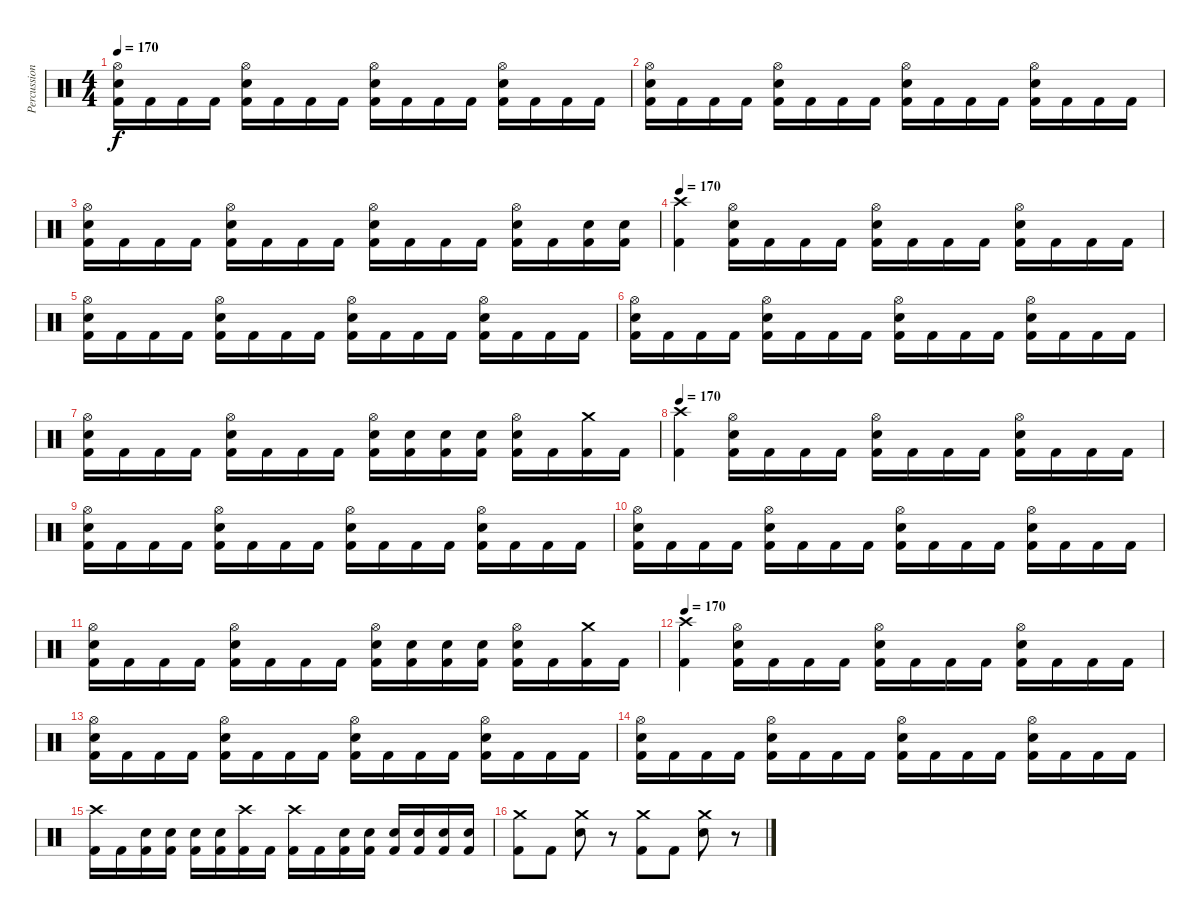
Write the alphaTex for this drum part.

\track ("Percussion" "Percussion") {instrument percussion}
\staff {score}
\articulation defaults
\ts (4 4)
\tempo 170
\clef neutral
\ks c
("Hi-Hat (open)" "Electric Snare (hit)" "Kick (hit) 2").16{dy f} "Kick (hit) 2".16 "Kick (hit) 2".16 "Kick (hit) 2".16 ("Hi-Hat (open)" "Electric Snare (hit)" "Kick (hit) 2").16 "Kick (hit) 2".16 "Kick (hit) 2".16 "Kick (hit) 2".16 ("Hi-Hat (open)" "Electric Snare (hit)" "Kick (hit) 2").16 "Kick (hit) 2".16 "Kick (hit) 2".16 "Kick (hit) 2".16 ("Hi-Hat (open)" "Electric Snare (hit)" "Kick (hit) 2").16 "Kick (hit) 2".16 "Kick (hit) 2".16 "Kick (hit) 2".16 |
("Hi-Hat (open)" "Electric Snare (hit)" "Kick (hit) 2").16 "Kick (hit) 2".16 "Kick (hit) 2".16 "Kick (hit) 2".16 ("Hi-Hat (open)" "Electric Snare (hit)" "Kick (hit) 2").16 "Kick (hit) 2".16 "Kick (hit) 2".16 "Kick (hit) 2".16 ("Hi-Hat (open)" "Electric Snare (hit)" "Kick (hit) 2").16 "Kick (hit) 2".16 "Kick (hit) 2".16 "Kick (hit) 2".16 ("Hi-Hat (open)" "Electric Snare (hit)" "Kick (hit) 2").16 "Kick (hit) 2".16 "Kick (hit) 2".16 "Kick (hit) 2".16 |
("Hi-Hat (open)" "Electric Snare (hit)" "Kick (hit) 2").16 "Kick (hit) 2".16 "Kick (hit) 2".16 "Kick (hit) 2".16 ("Hi-Hat (open)" "Electric Snare (hit)" "Kick (hit) 2").16 "Kick (hit) 2".16 "Kick (hit) 2".16 "Kick (hit) 2".16 ("Hi-Hat (open)" "Electric Snare (hit)" "Kick (hit) 2").16 "Kick (hit) 2".16 "Kick (hit) 2".16 "Kick (hit) 2".16 ("Hi-Hat (open)" "Electric Snare (hit)" "Kick (hit) 2").16 "Kick (hit) 2".16 ("Electric Snare (hit)" "Kick (hit) 2").16 ("Electric Snare (hit)" "Kick (hit) 2").16 |
\tempo 170
("Crash high (hit)" "Kick (hit) 2").4 ("Hi-Hat (open)" "Electric Snare (hit)" "Kick (hit) 2").16 "Kick (hit) 2".16 "Kick (hit) 2".16 "Kick (hit) 2".16 ("Hi-Hat (open)" "Electric Snare (hit)" "Kick (hit) 2").16 "Kick (hit) 2".16 "Kick (hit) 2".16 "Kick (hit) 2".16 ("Hi-Hat (open)" "Electric Snare (hit)" "Kick (hit) 2").16 "Kick (hit) 2".16 "Kick (hit) 2".16 "Kick (hit) 2".16 |
("Hi-Hat (open)" "Electric Snare (hit)" "Kick (hit) 2").16 "Kick (hit) 2".16 "Kick (hit) 2".16 "Kick (hit) 2".16 ("Hi-Hat (open)" "Electric Snare (hit)" "Kick (hit) 2").16 "Kick (hit) 2".16 "Kick (hit) 2".16 "Kick (hit) 2".16 ("Hi-Hat (open)" "Electric Snare (hit)" "Kick (hit) 2").16 "Kick (hit) 2".16 "Kick (hit) 2".16 "Kick (hit) 2".16 ("Hi-Hat (open)" "Electric Snare (hit)" "Kick (hit) 2").16 "Kick (hit) 2".16 "Kick (hit) 2".16 "Kick (hit) 2".16 |
("Hi-Hat (open)" "Electric Snare (hit)" "Kick (hit) 2").16 "Kick (hit) 2".16 "Kick (hit) 2".16 "Kick (hit) 2".16 ("Hi-Hat (open)" "Electric Snare (hit)" "Kick (hit) 2").16 "Kick (hit) 2".16 "Kick (hit) 2".16 "Kick (hit) 2".16 ("Hi-Hat (open)" "Electric Snare (hit)" "Kick (hit) 2").16 "Kick (hit) 2".16 "Kick (hit) 2".16 "Kick (hit) 2".16 ("Hi-Hat (open)" "Electric Snare (hit)" "Kick (hit) 2").16 "Kick (hit) 2".16 "Kick (hit) 2".16 "Kick (hit) 2".16 |
("Hi-Hat (open)" "Electric Snare (hit)" "Kick (hit) 2").16 "Kick (hit) 2".16 "Kick (hit) 2".16 "Kick (hit) 2".16 ("Hi-Hat (open)" "Electric Snare (hit)" "Kick (hit) 2").16 "Kick (hit) 2".16 "Kick (hit) 2".16 "Kick (hit) 2".16 ("Hi-Hat (open)" "Electric Snare (hit)" "Kick (hit) 2").16 ("Electric Snare (hit)" "Kick (hit) 2").16 ("Electric Snare (hit)" "Kick (hit) 2").16 ("Electric Snare (hit)" "Kick (hit) 2").16 ("Hi-Hat (open)" "Electric Snare (hit)" "Kick (hit) 2").16 "Kick (hit) 2".16 ("Crash medium (hit)" "Kick (hit) 2").16 "Kick (hit) 2".16 |
\tempo 170
("Crash high (hit)" "Kick (hit) 2").4 ("Hi-Hat (open)" "Electric Snare (hit)" "Kick (hit) 2").16 "Kick (hit) 2".16 "Kick (hit) 2".16 "Kick (hit) 2".16 ("Hi-Hat (open)" "Electric Snare (hit)" "Kick (hit) 2").16 "Kick (hit) 2".16 "Kick (hit) 2".16 "Kick (hit) 2".16 ("Hi-Hat (open)" "Electric Snare (hit)" "Kick (hit) 2").16 "Kick (hit) 2".16 "Kick (hit) 2".16 "Kick (hit) 2".16 |
("Hi-Hat (open)" "Electric Snare (hit)" "Kick (hit) 2").16 "Kick (hit) 2".16 "Kick (hit) 2".16 "Kick (hit) 2".16 ("Hi-Hat (open)" "Electric Snare (hit)" "Kick (hit) 2").16 "Kick (hit) 2".16 "Kick (hit) 2".16 "Kick (hit) 2".16 ("Hi-Hat (open)" "Electric Snare (hit)" "Kick (hit) 2").16 "Kick (hit) 2".16 "Kick (hit) 2".16 "Kick (hit) 2".16 ("Hi-Hat (open)" "Electric Snare (hit)" "Kick (hit) 2").16 "Kick (hit) 2".16 "Kick (hit) 2".16 "Kick (hit) 2".16 |
("Hi-Hat (open)" "Electric Snare (hit)" "Kick (hit) 2").16 "Kick (hit) 2".16 "Kick (hit) 2".16 "Kick (hit) 2".16 ("Hi-Hat (open)" "Electric Snare (hit)" "Kick (hit) 2").16 "Kick (hit) 2".16 "Kick (hit) 2".16 "Kick (hit) 2".16 ("Hi-Hat (open)" "Electric Snare (hit)" "Kick (hit) 2").16 "Kick (hit) 2".16 "Kick (hit) 2".16 "Kick (hit) 2".16 ("Hi-Hat (open)" "Electric Snare (hit)" "Kick (hit) 2").16 "Kick (hit) 2".16 "Kick (hit) 2".16 "Kick (hit) 2".16 |
("Hi-Hat (open)" "Electric Snare (hit)" "Kick (hit) 2").16 "Kick (hit) 2".16 "Kick (hit) 2".16 "Kick (hit) 2".16 ("Hi-Hat (open)" "Electric Snare (hit)" "Kick (hit) 2").16 "Kick (hit) 2".16 "Kick (hit) 2".16 "Kick (hit) 2".16 ("Hi-Hat (open)" "Electric Snare (hit)" "Kick (hit) 2").16 ("Electric Snare (hit)" "Kick (hit) 2").16 ("Electric Snare (hit)" "Kick (hit) 2").16 ("Electric Snare (hit)" "Kick (hit) 2").16 ("Hi-Hat (open)" "Electric Snare (hit)" "Kick (hit) 2").16 "Kick (hit) 2".16 ("Crash medium (hit)" "Kick (hit) 2").16 "Kick (hit) 2".16 |
\tempo 170
("Crash high (hit)" "Kick (hit) 2").4 ("Hi-Hat (open)" "Electric Snare (hit)" "Kick (hit) 2").16 "Kick (hit) 2".16 "Kick (hit) 2".16 "Kick (hit) 2".16 ("Hi-Hat (open)" "Electric Snare (hit)" "Kick (hit) 2").16 "Kick (hit) 2".16 "Kick (hit) 2".16 "Kick (hit) 2".16 ("Hi-Hat (open)" "Electric Snare (hit)" "Kick (hit) 2").16 "Kick (hit) 2".16 "Kick (hit) 2".16 "Kick (hit) 2".16 |
("Hi-Hat (open)" "Electric Snare (hit)" "Kick (hit) 2").16 "Kick (hit) 2".16 "Kick (hit) 2".16 "Kick (hit) 2".16 ("Hi-Hat (open)" "Electric Snare (hit)" "Kick (hit) 2").16 "Kick (hit) 2".16 "Kick (hit) 2".16 "Kick (hit) 2".16 ("Hi-Hat (open)" "Electric Snare (hit)" "Kick (hit) 2").16 "Kick (hit) 2".16 "Kick (hit) 2".16 "Kick (hit) 2".16 ("Hi-Hat (open)" "Electric Snare (hit)" "Kick (hit) 2").16 "Kick (hit) 2".16 "Kick (hit) 2".16 "Kick (hit) 2".16 |
("Hi-Hat (open)" "Electric Snare (hit)" "Kick (hit) 2").16 "Kick (hit) 2".16 "Kick (hit) 2".16 "Kick (hit) 2".16 ("Hi-Hat (open)" "Electric Snare (hit)" "Kick (hit) 2").16 "Kick (hit) 2".16 "Kick (hit) 2".16 "Kick (hit) 2".16 ("Hi-Hat (open)" "Electric Snare (hit)" "Kick (hit) 2").16 "Kick (hit) 2".16 "Kick (hit) 2".16 "Kick (hit) 2".16 ("Hi-Hat (open)" "Electric Snare (hit)" "Kick (hit) 2").16 "Kick (hit) 2".16 "Kick (hit) 2".16 "Kick (hit) 2".16 |
("Crash high (hit)" "Kick (hit) 2").16 "Kick (hit) 2".16 ("Electric Snare (hit)" "Kick (hit) 2").16 ("Electric Snare (hit)" "Kick (hit) 2").16 ("Electric Snare (hit)" "Kick (hit) 2").16 ("Electric Snare (hit)" "Kick (hit) 2").16 ("Crash high (hit)" "Kick (hit) 2").16 "Kick (hit) 2".16 ("Crash high (hit)" "Kick (hit) 2").16 "Kick (hit) 2".16 ("Electric Snare (hit)" "Kick (hit) 2").16 ("Electric Snare (hit)" "Kick (hit) 2").16 ("Electric Snare (hit)" "Kick (hit) 2").16 ("Electric Snare (hit)" "Kick (hit) 2").16 ("Electric Snare (hit)" "Kick (hit) 2").16 ("Electric Snare (hit)" "Kick (hit) 2").16 |
("Crash medium (hit)" "Kick (hit) 2").8 "Kick (hit) 2".8 ("Crash medium (hit)" "Electric Snare (hit)").8 r.8 ("Crash medium (hit)" "Kick (hit) 2").8 "Kick (hit) 2".8 ("Crash medium (hit)" "Electric Snare (hit)").8 r.8
